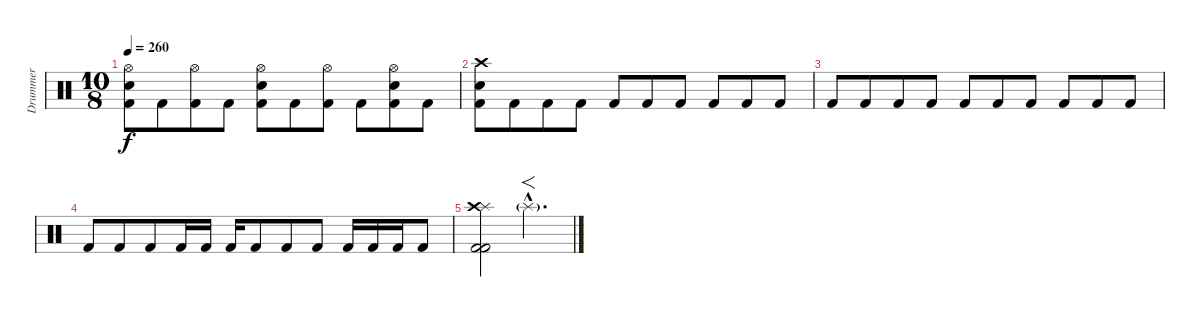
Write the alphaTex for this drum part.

\track ("Drummer" "Drummer") {instrument percussion}
\staff {score}
\articulation defaults
\ts (10 8)
\tempo 260
\clef neutral
\ks c
("Hi-Hat (open)" "Snare (hit) 2" "Kick (hit) 2").8{dy f} "Kick (hit) 2".8 ("Hi-Hat (open)" "Kick (hit) 2").8 "Kick (hit) 2".8 ("Hi-Hat (open)" "Snare (hit) 2" "Kick (hit) 2").8 "Kick (hit) 2".8 ("Hi-Hat (open)" "Kick (hit) 2").8 "Kick (hit) 2".8 ("Hi-Hat (open)" "Snare (hit) 2" "Kick (hit) 2").8 "Kick (hit) 2".8 |
("Crash high (hit)" "Snare (hit) 2" "Kick (hit) 2").8 "Kick (hit) 2".8 "Kick (hit) 2".8 "Kick (hit) 2".8 "Kick (hit) 2".8 "Kick (hit) 2".8 "Kick (hit) 2".8 "Kick (hit) 2".8 "Kick (hit) 2".8 "Kick (hit) 2".8 |
"Kick (hit) 2".8 "Kick (hit) 2".8 "Kick (hit) 2".8 "Kick (hit) 2".8 "Kick (hit) 2".8 "Kick (hit) 2".8 "Kick (hit) 2".8 "Kick (hit) 2".8 "Kick (hit) 2".8 "Kick (hit) 2".8 |
"Kick (hit) 2".8 "Kick (hit) 2".8 "Kick (hit) 2".8 "Kick (hit) 2".16 "Kick (hit) 2".16 "Kick (hit) 2".16 "Kick (hit) 2".8 "Kick (hit) 2".8 "Kick (hit) 2".8 "Kick (hit) 2".16 "Kick (hit) 2".16 "Kick (hit) 2".16 "Kick (hit) 2".8 |
("Splash (hit)" "Crash high (hit)" "Kick (hit) 2" "Kick (hit) 2").2 "Splash (hit)"{g hac}.2{f d}
